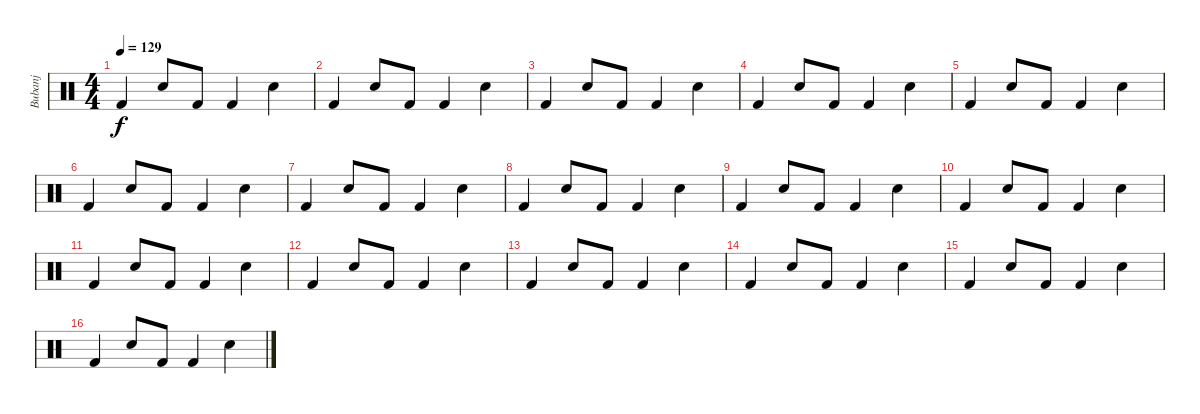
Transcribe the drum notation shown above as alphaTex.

\track ("Bubanj" "Bubanj") {instrument percussion}
\staff {score}
\articulation defaults
\ts (4 4)
\tempo 129
\clef neutral
\ks c "Kick (hit) 2".4{dy f} "Electric Snare (hit)".8 "Kick (hit) 2".8 "Kick (hit) 2".4 "Electric Snare (hit)".4
|
"Kick (hit) 2".4 "Electric Snare (hit)".8 "Kick (hit) 2".8 "Kick (hit) 2".4 "Electric Snare (hit)".4 |
"Kick (hit) 2".4 "Electric Snare (hit)".8 "Kick (hit) 2".8 "Kick (hit) 2".4 "Electric Snare (hit)".4 |
"Kick (hit) 2".4 "Electric Snare (hit)".8 "Kick (hit) 2".8 "Kick (hit) 2".4 "Electric Snare (hit)".4 |
"Kick (hit) 2".4 "Electric Snare (hit)".8 "Kick (hit) 2".8 "Kick (hit) 2".4 "Electric Snare (hit)".4 |
"Kick (hit) 2".4 "Electric Snare (hit)".8 "Kick (hit) 2".8 "Kick (hit) 2".4 "Electric Snare (hit)".4 |
"Kick (hit) 2".4 "Electric Snare (hit)".8 "Kick (hit) 2".8 "Kick (hit) 2".4 "Electric Snare (hit)".4 |
"Kick (hit) 2".4 "Electric Snare (hit)".8 "Kick (hit) 2".8 "Kick (hit) 2".4 "Electric Snare (hit)".4 |
"Kick (hit) 2".4 "Electric Snare (hit)".8 "Kick (hit) 2".8 "Kick (hit) 2".4 "Electric Snare (hit)".4 |
"Kick (hit) 2".4 "Electric Snare (hit)".8 "Kick (hit) 2".8 "Kick (hit) 2".4 "Electric Snare (hit)".4 |
"Kick (hit) 2".4 "Electric Snare (hit)".8 "Kick (hit) 2".8 "Kick (hit) 2".4 "Electric Snare (hit)".4 |
"Kick (hit) 2".4 "Electric Snare (hit)".8 "Kick (hit) 2".8 "Kick (hit) 2".4 "Electric Snare (hit)".4 |
"Kick (hit) 2".4 "Electric Snare (hit)".8 "Kick (hit) 2".8 "Kick (hit) 2".4 "Electric Snare (hit)".4 |
"Kick (hit) 2".4 "Electric Snare (hit)".8 "Kick (hit) 2".8 "Kick (hit) 2".4 "Electric Snare (hit)".4 |
"Kick (hit) 2".4 "Electric Snare (hit)".8 "Kick (hit) 2".8 "Kick (hit) 2".4 "Electric Snare (hit)".4 |
"Kick (hit) 2".4 "Electric Snare (hit)".8 "Kick (hit) 2".8 "Kick (hit) 2".4 "Electric Snare (hit)".4
